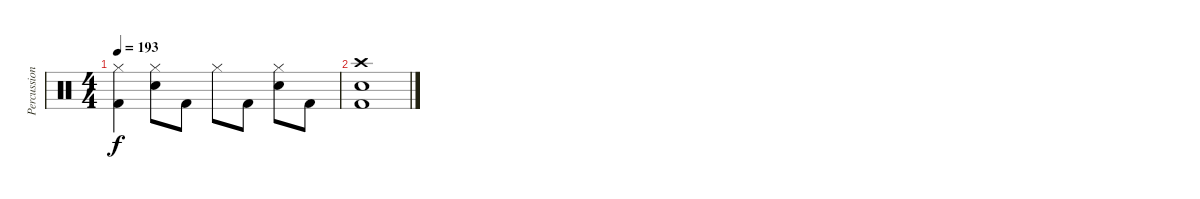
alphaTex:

\track ("Percussioni" "Percussion") {instrument percussion}
\staff {score}
\articulation defaults
\ts (4 4)
\tempo 193
\clef neutral
\ks c
("Kick (hit) 2" "Hi-Hat (closed)").4{dy f} ("Electric Snare (hit)" "Hi-Hat (closed)").8 "Kick (hit) 2".8 "Hi-Hat (closed)".8 "Kick (hit) 2".8 ("Electric Snare (hit)" "Hi-Hat (closed)").8 "Kick (hit) 2".8 |
("Kick (hit) 2" "Electric Snare (hit)" "Crash high (hit)").1
